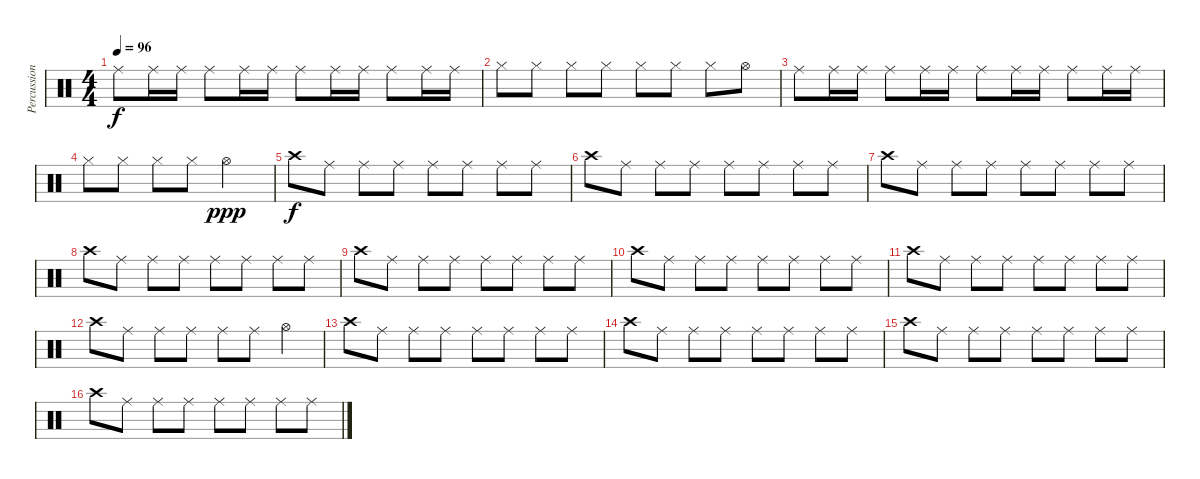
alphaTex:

\track ("Percussion" "Percussion") {instrument percussion}
\staff {score}
\articulation defaults
\ts (4 4)
\tempo 96
\clef neutral
\ks c "Ride (middle)".8{dy f} "Ride (middle)".16 "Ride (middle)".16 "Ride (middle)".8 "Ride (middle)".16 "Ride (middle)".16 "Ride (middle)".8 "Ride (middle)".16 "Ride (middle)".16 "Ride (middle)".8 "Ride (middle)".16 "Ride (middle)".16
|
"Hi-Hat (closed)".8 "Hi-Hat (closed)".8 "Hi-Hat (closed)".8 "Hi-Hat (closed)".8 "Hi-Hat (closed)".8 "Hi-Hat (closed)".8 "Hi-Hat (closed)".8 "Hi-Hat (open)".8 |
"Ride (middle)".8 "Ride (middle)".16 "Ride (middle)".16 "Ride (middle)".8 "Ride (middle)".16 "Ride (middle)".16 "Ride (middle)".8 "Ride (middle)".16 "Ride (middle)".16 "Ride (middle)".8 "Ride (middle)".16 "Ride (middle)".16 |
"Hi-Hat (closed)".8 "Hi-Hat (closed)".8 "Hi-Hat (closed)".8 "Hi-Hat (closed)".8 "Hi-Hat (open)".2{dy ppp} |
"Crash high (hit)".8{dy f} "Ride (middle)".8 "Ride (middle)".8 "Ride (middle)".8 "Ride (middle)".8 "Ride (middle)".8 "Ride (middle)".8 "Ride (middle)".8 |
"Crash high (hit)".8 "Ride (middle)".8 "Ride (middle)".8 "Ride (middle)".8 "Ride (middle)".8 "Ride (middle)".8 "Ride (middle)".8 "Ride (middle)".8 |
"Crash high (hit)".8 "Ride (middle)".8 "Ride (middle)".8 "Ride (middle)".8 "Ride (middle)".8 "Ride (middle)".8 "Ride (middle)".8 "Ride (middle)".8 |
"Crash high (hit)".8 "Ride (middle)".8 "Ride (middle)".8 "Ride (middle)".8 "Ride (middle)".8 "Ride (middle)".8 "Ride (middle)".8 "Ride (middle)".8 |
"Crash high (hit)".8 "Ride (middle)".8 "Ride (middle)".8 "Ride (middle)".8 "Ride (middle)".8 "Ride (middle)".8 "Ride (middle)".8 "Ride (middle)".8 |
"Crash high (hit)".8 "Ride (middle)".8 "Ride (middle)".8 "Ride (middle)".8 "Ride (middle)".8 "Ride (middle)".8 "Ride (middle)".8 "Ride (middle)".8 |
"Crash high (hit)".8 "Ride (middle)".8 "Ride (middle)".8 "Ride (middle)".8 "Ride (middle)".8 "Ride (middle)".8 "Ride (middle)".8 "Ride (middle)".8 |
"Crash high (hit)".8 "Ride (middle)".8 "Ride (middle)".8 "Ride (middle)".8 "Ride (middle)".8 "Ride (middle)".8 "Hi-Hat (open)".4 |
"Crash high (hit)".8 "Ride (middle)".8 "Ride (middle)".8 "Ride (middle)".8 "Ride (middle)".8 "Ride (middle)".8 "Ride (middle)".8 "Ride (middle)".8 |
"Crash high (hit)".8 "Ride (middle)".8 "Ride (middle)".8 "Ride (middle)".8 "Ride (middle)".8 "Ride (middle)".8 "Ride (middle)".8 "Ride (middle)".8 |
"Crash high (hit)".8 "Ride (middle)".8 "Ride (middle)".8 "Ride (middle)".8 "Ride (middle)".8 "Ride (middle)".8 "Ride (middle)".8 "Ride (middle)".8 |
"Crash high (hit)".8 "Ride (middle)".8 "Ride (middle)".8 "Ride (middle)".8 "Ride (middle)".8 "Ride (middle)".8 "Ride (middle)".8 "Ride (middle)".8
